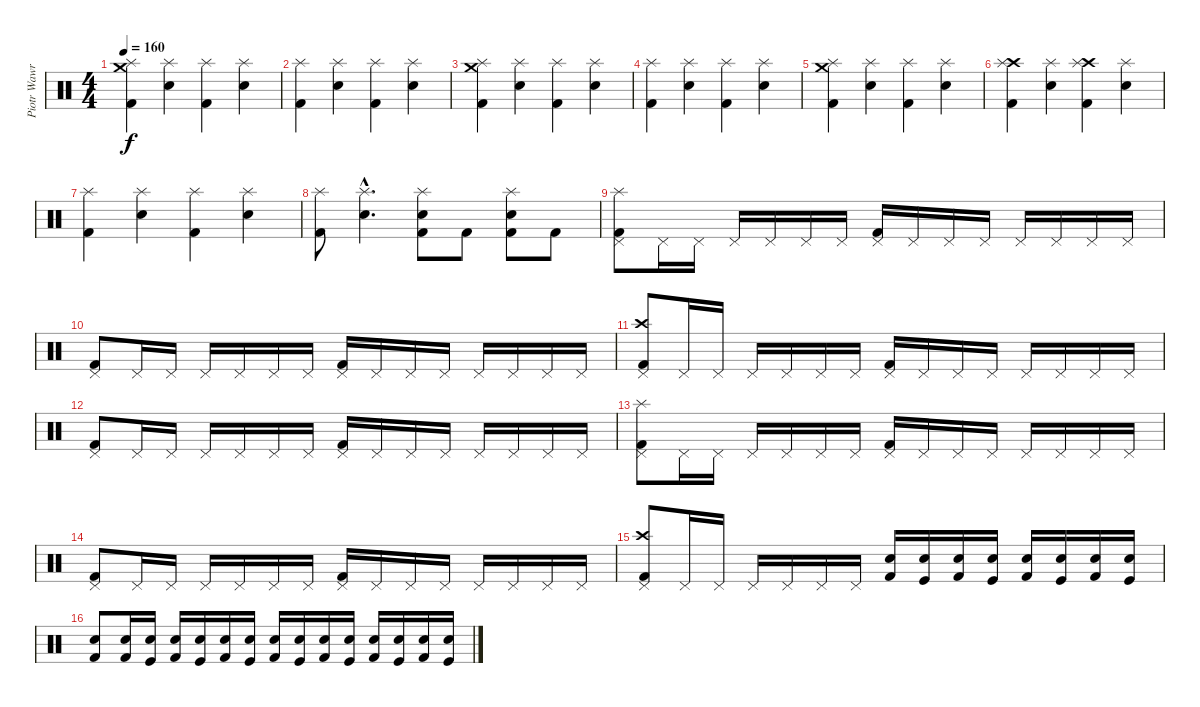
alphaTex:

\track ("Piotr Wawrzeniuk" "Piotr Wawr") {instrument percussion}
\staff {score}
\articulation defaults
\ts (4 4)
\tempo 160
\clef neutral
\ks c
("Crash medium (hit)" "Splash (hit)" "Kick (hit) 2").4{dy f} ("Electric Snare (hit)" "Splash (hit)").4 ("Splash (hit)" "Kick (hit) 2").4 ("Electric Snare (hit)" "Splash (hit)").4 |
("Splash (hit)" "Kick (hit) 2").4 ("Electric Snare (hit)" "Splash (hit)").4 ("Splash (hit)" "Kick (hit) 2").4 ("Electric Snare (hit)" "Splash (hit)").4 |
("Crash medium (hit)" "Splash (hit)" "Kick (hit) 2").4 ("Electric Snare (hit)" "Splash (hit)").4 ("Splash (hit)" "Kick (hit) 2").4 ("Electric Snare (hit)" "Splash (hit)").4 |
("Splash (hit)" "Kick (hit) 2").4 ("Electric Snare (hit)" "Splash (hit)").4 ("Splash (hit)" "Kick (hit) 2").4 ("Electric Snare (hit)" "Splash (hit)").4 |
("Crash medium (hit)" "Splash (hit)" "Kick (hit) 2").4 ("Electric Snare (hit)" "Splash (hit)").4 ("Splash (hit)" "Kick (hit) 2").4 ("Electric Snare (hit)" "Splash (hit)").4 |
("Crash high (hit)" "Splash (hit)" "Kick (hit) 2").4 ("Electric Snare (hit)" "Splash (hit)").4 ("Crash high (hit)" "Splash (hit)" "Kick (hit) 2").4 ("Electric Snare (hit)" "Splash (hit)").4 |
("Splash (hit)" "Kick (hit) 2").4 ("Electric Snare (hit)" "Splash (hit)").4 ("Splash (hit)" "Kick (hit) 2").4 ("Electric Snare (hit)" "Splash (hit)").4 |
("Splash (hit)" "Kick (hit) 2").8 ("Electric Snare (hit)"{hac} "Splash (hit)"{hac}).4{d} ("Electric Snare (hit)" "Splash (hit)" "Kick (hit) 2").8 "Kick (hit) 2".8 ("Electric Snare (hit)" "Splash (hit)" "Kick (hit) 2").8 "Kick (hit) 2".8 |
("Splash (hit)" "Pedal Hi-Hat (hit)" "Kick (hit) 2").8 "Pedal Hi-Hat (hit)".16 "Pedal Hi-Hat (hit)".16 "Pedal Hi-Hat (hit)".16 "Pedal Hi-Hat (hit)".16 "Pedal Hi-Hat (hit)".16 "Pedal Hi-Hat (hit)".16 ("Pedal Hi-Hat (hit)" "Kick (hit) 2").16 "Pedal Hi-Hat (hit)".16 "Pedal Hi-Hat (hit)".16 "Pedal Hi-Hat (hit)".16 "Pedal Hi-Hat (hit)".16 "Pedal Hi-Hat (hit)".16 "Pedal Hi-Hat (hit)".16 "Pedal Hi-Hat (hit)".16 |
("Pedal Hi-Hat (hit)" "Kick (hit) 2").8 "Pedal Hi-Hat (hit)".16 "Pedal Hi-Hat (hit)".16 "Pedal Hi-Hat (hit)".16 "Pedal Hi-Hat (hit)".16 "Pedal Hi-Hat (hit)".16 "Pedal Hi-Hat (hit)".16 ("Pedal Hi-Hat (hit)" "Kick (hit) 2").16 "Pedal Hi-Hat (hit)".16 "Pedal Hi-Hat (hit)".16 "Pedal Hi-Hat (hit)".16 "Pedal Hi-Hat (hit)".16 "Pedal Hi-Hat (hit)".16 "Pedal Hi-Hat (hit)".16 "Pedal Hi-Hat (hit)".16 |
("Crash high (hit)" "Pedal Hi-Hat (hit)" "Kick (hit) 2").8 "Pedal Hi-Hat (hit)".16 "Pedal Hi-Hat (hit)".16 "Pedal Hi-Hat (hit)".16 "Pedal Hi-Hat (hit)".16 "Pedal Hi-Hat (hit)".16 "Pedal Hi-Hat (hit)".16 ("Pedal Hi-Hat (hit)" "Kick (hit) 2").16 "Pedal Hi-Hat (hit)".16 "Pedal Hi-Hat (hit)".16 "Pedal Hi-Hat (hit)".16 "Pedal Hi-Hat (hit)".16 "Pedal Hi-Hat (hit)".16 "Pedal Hi-Hat (hit)".16 "Pedal Hi-Hat (hit)".16 |
("Pedal Hi-Hat (hit)" "Kick (hit) 2").8 "Pedal Hi-Hat (hit)".16 "Pedal Hi-Hat (hit)".16 "Pedal Hi-Hat (hit)".16 "Pedal Hi-Hat (hit)".16 "Pedal Hi-Hat (hit)".16 "Pedal Hi-Hat (hit)".16 ("Pedal Hi-Hat (hit)" "Kick (hit) 2").16 "Pedal Hi-Hat (hit)".16 "Pedal Hi-Hat (hit)".16 "Pedal Hi-Hat (hit)".16 "Pedal Hi-Hat (hit)".16 "Pedal Hi-Hat (hit)".16 "Pedal Hi-Hat (hit)".16 "Pedal Hi-Hat (hit)".16 |
("Splash (hit)" "Pedal Hi-Hat (hit)" "Kick (hit) 2").8 "Pedal Hi-Hat (hit)".16 "Pedal Hi-Hat (hit)".16 "Pedal Hi-Hat (hit)".16 "Pedal Hi-Hat (hit)".16 "Pedal Hi-Hat (hit)".16 "Pedal Hi-Hat (hit)".16 ("Pedal Hi-Hat (hit)" "Kick (hit) 2").16 "Pedal Hi-Hat (hit)".16 "Pedal Hi-Hat (hit)".16 "Pedal Hi-Hat (hit)".16 "Pedal Hi-Hat (hit)".16 "Pedal Hi-Hat (hit)".16 "Pedal Hi-Hat (hit)".16 "Pedal Hi-Hat (hit)".16 |
("Pedal Hi-Hat (hit)" "Kick (hit) 2").8 "Pedal Hi-Hat (hit)".16 "Pedal Hi-Hat (hit)".16 "Pedal Hi-Hat (hit)".16 "Pedal Hi-Hat (hit)".16 "Pedal Hi-Hat (hit)".16 "Pedal Hi-Hat (hit)".16 ("Pedal Hi-Hat (hit)" "Kick (hit) 2").16 "Pedal Hi-Hat (hit)".16 "Pedal Hi-Hat (hit)".16 "Pedal Hi-Hat (hit)".16 "Pedal Hi-Hat (hit)".16 "Pedal Hi-Hat (hit)".16 "Pedal Hi-Hat (hit)".16 "Pedal Hi-Hat (hit)".16 |
("Crash high (hit)" "Pedal Hi-Hat (hit)" "Kick (hit) 2").8 "Pedal Hi-Hat (hit)".16 "Pedal Hi-Hat (hit)".16 "Pedal Hi-Hat (hit)".16 "Pedal Hi-Hat (hit)".16 "Pedal Hi-Hat (hit)".16 "Pedal Hi-Hat (hit)".16 ("Snare (hit) 2" "Kick (hit) 2").16 ("Snare (hit) 2" "Kick (hit)").16 ("Snare (hit) 2" "Kick (hit) 2").16 ("Snare (hit) 2" "Kick (hit)").16 ("Snare (hit) 2" "Kick (hit) 2").16 ("Snare (hit) 2" "Kick (hit)").16 ("Snare (hit) 2" "Kick (hit) 2").16 ("Snare (hit) 2" "Kick (hit)").16 |
("Snare (hit) 2" "Kick (hit) 2").8 ("Snare (hit) 2" "Kick (hit) 2").16 ("Snare (hit) 2" "Kick (hit)").16 ("Snare (hit) 2" "Kick (hit) 2").16 ("Snare (hit) 2" "Kick (hit)").16 ("Snare (hit) 2" "Kick (hit) 2").16 ("Snare (hit) 2" "Kick (hit)").16 ("Snare (hit) 2" "Kick (hit) 2").16 ("Snare (hit) 2" "Kick (hit)").16 ("Snare (hit) 2" "Kick (hit) 2").16 ("Snare (hit) 2" "Kick (hit)").16 ("Snare (hit) 2" "Kick (hit) 2").16 ("Snare (hit) 2" "Kick (hit)").16 ("Snare (hit) 2" "Kick (hit) 2").16 ("Snare (hit) 2" "Kick (hit)").16
